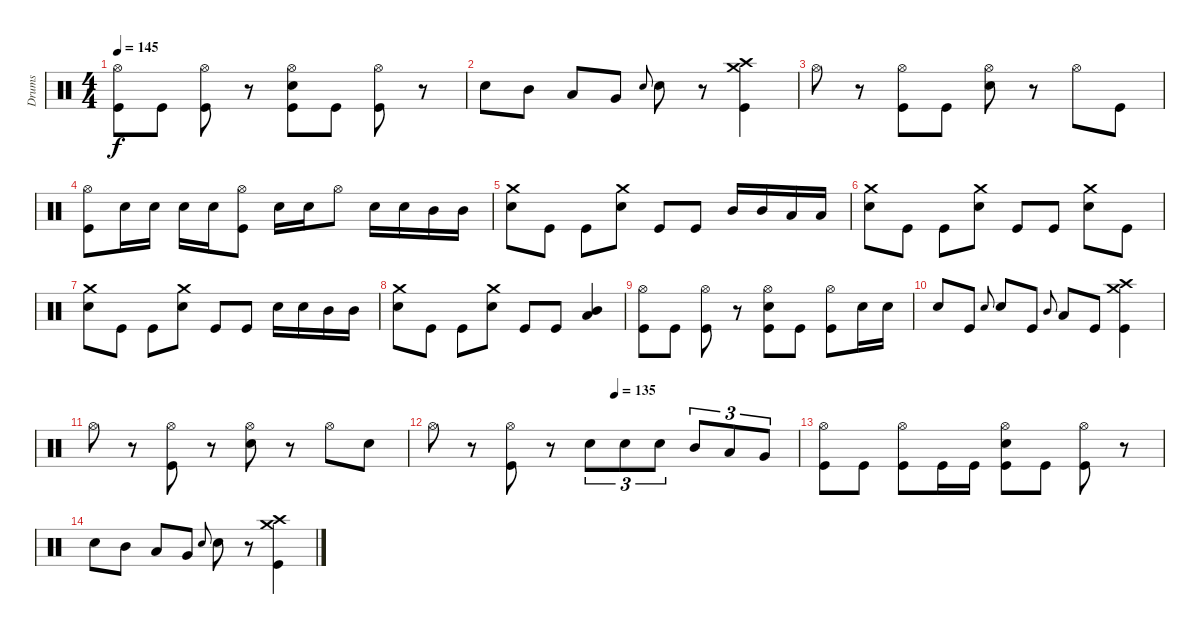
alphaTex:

\track ("Drums" "Drums") {instrument percussion}
\staff {score}
\articulation defaults
\ts (4 4)
\tempo 145
\clef neutral
\ks c
("Hi-Hat (open)" "Kick (hit)").8{dy f} "Kick (hit)".8 ("Hi-Hat (open)" "Kick (hit)").8 r.8 ("Hi-Hat (open)" "Snare (hit) 2" "Kick (hit)").8 "Kick (hit)".8 ("Hi-Hat (open)" "Kick (hit)").8 r.8 |
"Snare (hit) 2".8 "Mid Tom (hit)".8 "Low Tom (hit)".8 "Very Low Tom (hit)".8 "Snare (hit) 2".8{gr onbeat} "Snare (hit) 2".8 r.8 ("Crash medium (hit)" "Crash high (hit)" "Kick (hit)").4 |
"Hi-Hat (open)".8 r.8 ("Hi-Hat (open)" "Kick (hit)").8 "Kick (hit)".8 ("Hi-Hat (open)" "Snare (hit) 2").8 r.8 "Hi-Hat (open)".8 "Kick (hit)".8 |
("Hi-Hat (open)" "Kick (hit)").8 "Snare (hit) 2".16 "Snare (hit) 2".16 "Snare (hit) 2".16 "Snare (hit) 2".16 ("Hi-Hat (open)" "Kick (hit)").8 "Snare (hit) 2".16 "Snare (hit) 2".16 "Hi-Hat (open)".8 "Snare (hit) 2".16 "Snare (hit) 2".16 "Mid Tom (hit)".16 "Mid Tom (hit)".16 |
("Crash medium (hit)" "Snare (hit) 2").8 "Kick (hit)".8 "Kick (hit)".8 ("Crash medium (hit)" "Snare (hit) 2").8 "Kick (hit)".8 "Kick (hit)".8 "Mid Tom (hit)".16 "Mid Tom (hit)".16 "Low Tom (hit)".16 "Low Tom (hit)".16 |
("Crash medium (hit)" "Snare (hit) 2").8 "Kick (hit)".8 "Kick (hit)".8 ("Crash medium (hit)" "Snare (hit) 2").8 "Kick (hit)".8 "Kick (hit)".8 ("Crash medium (hit)" "Snare (hit) 2").8 "Kick (hit)".8 |
("Crash medium (hit)" "Snare (hit) 2").8 "Kick (hit)".8 "Kick (hit)".8 ("Crash medium (hit)" "Snare (hit) 2").8 "Kick (hit)".8 "Kick (hit)".8 "Snare (hit) 2".16 "Snare (hit) 2".16 "Mid Tom (hit)".16 "Mid Tom (hit)".16 |
("Crash medium (hit)" "Snare (hit) 2").8 "Kick (hit)".8 "Kick (hit)".8 ("Crash medium (hit)" "Snare (hit) 2").8 "Kick (hit)".8 "Kick (hit)".8 ("Mid Tom (hit)" "Low Tom (hit)").4 |
("Hi-Hat (open)" "Kick (hit)").8 "Kick (hit)".8 ("Hi-Hat (open)" "Kick (hit)").8 r.8 ("Hi-Hat (open)" "Snare (hit) 2" "Kick (hit)").8 "Kick (hit)".8 ("Hi-Hat (open)" "Kick (hit)").8 "Snare (hit) 2".16 "Snare (hit) 2".16 |
"Snare (hit) 2".8 "Kick (hit)".8 "Snare (hit) 2".8{gr onbeat} "Snare (hit) 2".8 "Kick (hit)".8 "Mid Tom (hit)".8{gr onbeat} "Low Tom (hit)".8 "Kick (hit)".8 ("Crash medium (hit)" "Crash high (hit)" "Kick (hit)").4 |
"Hi-Hat (open)".8 r.8 ("Hi-Hat (open)" "Kick (hit)").8 r.8 ("Hi-Hat (open)" "Snare (hit) 2").8 r.8 "Hi-Hat (open)".8 "Snare (hit) 2".8 |
\tempo (135 0.5)
"Hi-Hat (open)".8 r.8 ("Hi-Hat (open)" "Kick (hit)").8 r.8 "Snare (hit) 2".8{tu (3 2)} "Snare (hit) 2".8{tu (3 2)} "Snare (hit) 2".8{tu (3 2)} "Mid Tom (hit)".8{tu (3 2)} "Low Tom (hit)".8{tu (3 2)} "Very Low Tom (hit)".8{tu (3 2)} |
("Hi-Hat (open)" "Kick (hit)").8 "Kick (hit)".8 ("Hi-Hat (open)" "Kick (hit)").8 "Kick (hit)".16 "Kick (hit)".16 ("Hi-Hat (open)" "Snare (hit) 2" "Kick (hit)").8 "Kick (hit)".8 ("Hi-Hat (open)" "Kick (hit)").8 r.8 |
"Snare (hit) 2".8 "Mid Tom (hit)".8 "Low Tom (hit)".8 "Very Low Tom (hit)".8 "Snare (hit) 2".8{gr onbeat} "Snare (hit) 2".8 r.8 ("Crash medium (hit)" "Crash high (hit)" "Kick (hit)").4
